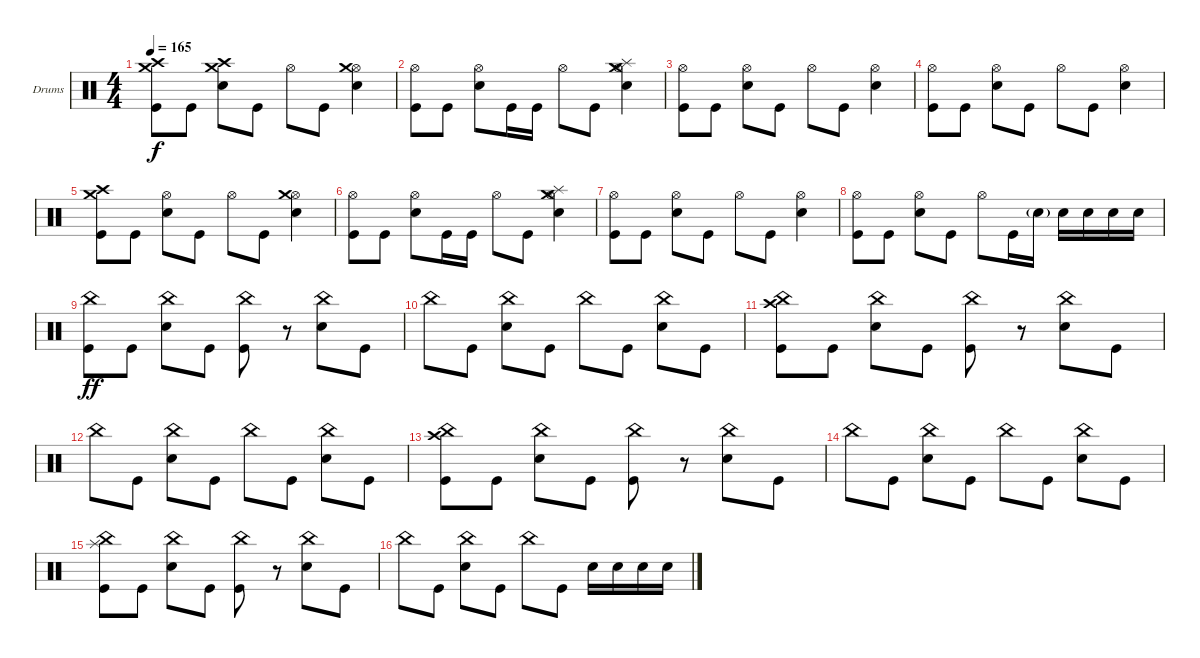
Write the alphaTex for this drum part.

\defaultSystemsLayout 4
\bracketExtendMode groupsimilarinstruments
\firstSystemTrackNameOrientation horizontal
\otherSystemsTrackNameOrientation horizontal
\track ("Drumkit" "Drums") {instrument percussion}
\staff {score}
\articulation defaults
\ts (4 4)
\tempo 165
\clef neutral
\ks c
("Kick (hit)" "Crash high (hit)" "Crash medium (hit)").8{dy f} "Kick (hit)".8 ("Snare (hit) 2" "Crash high (hit)" "Crash medium (hit)").8 "Kick (hit)".8 "Hi-Hat (open)".8 "Kick (hit)".8 ("Snare (hit) 2" "Hi-Hat (open)" "Crash medium (hit)").4 |
("Kick (hit)" "Hi-Hat (open)").8 "Kick (hit)".8 ("Hi-Hat (open)" "Snare (hit) 2").8 "Kick (hit)".16 "Kick (hit)".16 "Hi-Hat (open)".8 "Kick (hit)".8 ("Snare (hit) 2" "Hi-Hat (open)" "Crash medium (hit)" "Splash (hit)").4 |
("Kick (hit)" "Hi-Hat (open)").8 "Kick (hit)".8 ("Hi-Hat (open)" "Snare (hit) 2").8 "Kick (hit)".8 "Hi-Hat (open)".8 "Kick (hit)".8 ("Snare (hit) 2" "Hi-Hat (open)").4 |
("Kick (hit)" "Hi-Hat (open)").8 "Kick (hit)".8 ("Hi-Hat (open)" "Snare (hit) 2").8 "Kick (hit)".8 "Hi-Hat (open)".8 "Kick (hit)".8 ("Snare (hit) 2" "Hi-Hat (open)").4 |
("Kick (hit)" "Crash high (hit)" "Crash medium (hit)").8 "Kick (hit)".8 ("Hi-Hat (open)" "Snare (hit) 2").8 "Kick (hit)".8 "Hi-Hat (open)".8 "Kick (hit)".8 ("Snare (hit) 2" "Hi-Hat (open)" "Crash medium (hit)").4 |
("Kick (hit)" "Hi-Hat (open)").8 "Kick (hit)".8 ("Hi-Hat (open)" "Snare (hit) 2").8 "Kick (hit)".16 "Kick (hit)".16 "Hi-Hat (open)".8 "Kick (hit)".8 ("Snare (hit) 2" "Hi-Hat (open)" "Crash medium (hit)" "Splash (hit)").4 |
("Kick (hit)" "Hi-Hat (open)").8 "Kick (hit)".8 ("Hi-Hat (open)" "Snare (hit) 2").8 "Kick (hit)".8 "Hi-Hat (open)".8 "Kick (hit)".8 ("Snare (hit) 2" "Hi-Hat (open)").4 |
("Kick (hit)" "Hi-Hat (open)").8 "Kick (hit)".8 ("Hi-Hat (open)" "Snare (hit) 2").8 "Kick (hit)".8 "Hi-Hat (open)".8 "Kick (hit)".16 "Snare (hit) 2"{g}.16 "Snare (hit) 2".16 "Snare (hit) 2".16 "Snare (hit) 2".16 "Snare (hit) 2".16 |
("Kick (hit)" "China (hit)").8{dy ff} "Kick (hit)".8 ("Snare (hit) 2" "China (hit)").8 "Kick (hit)".8 ("Kick (hit)" "China (hit)").8 r.8 ("Snare (hit) 2" "China (hit)").8 "Kick (hit)".8 |
"China (hit)".8 "Kick (hit)".8 ("Snare (hit) 2" "China (hit)").8 "Kick (hit)".8 "China (hit)".8 "Kick (hit)".8 ("Snare (hit) 2" "China (hit)").8 "Kick (hit)".8 |
("Kick (hit)" "China (hit)" "Crash high (hit)").8 "Kick (hit)".8 ("Snare (hit) 2" "China (hit)").8 "Kick (hit)".8 ("Kick (hit)" "China (hit)").8 r.8 ("Snare (hit) 2" "China (hit)").8 "Kick (hit)".8 |
"China (hit)".8 "Kick (hit)".8 ("Snare (hit) 2" "China (hit)").8 "Kick (hit)".8 "China (hit)".8 "Kick (hit)".8 ("Snare (hit) 2" "China (hit)").8 "Kick (hit)".8 |
("Kick (hit)" "China (hit)" "Crash high (hit)").8 "Kick (hit)".8 ("Snare (hit) 2" "China (hit)").8 "Kick (hit)".8 ("Kick (hit)" "China (hit)").8 r.8 ("Snare (hit) 2" "China (hit)").8 "Kick (hit)".8 |
"China (hit)".8 "Kick (hit)".8 ("Snare (hit) 2" "China (hit)").8 "Kick (hit)".8 "China (hit)".8 "Kick (hit)".8 ("Snare (hit) 2" "China (hit)").8 "Kick (hit)".8 |
("Kick (hit)" "China (hit)" "Splash (hit)").8 "Kick (hit)".8 ("Snare (hit) 2" "China (hit)").8 "Kick (hit)".8 ("Kick (hit)" "China (hit)").8 r.8 ("Snare (hit) 2" "China (hit)").8 "Kick (hit)".8 |
"China (hit)".8 "Kick (hit)".8 ("Snare (hit) 2" "China (hit)").8 "Kick (hit)".8 "China (hit)".8 "Kick (hit)".8 "Snare (hit) 2".16 "Snare (hit) 2".16 "Snare (hit) 2".16 "Snare (hit) 2".16
